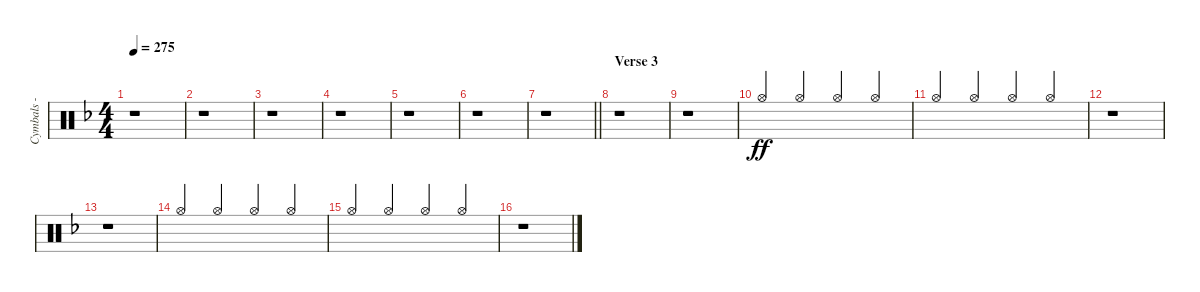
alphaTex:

\track ("Cymbals - hi-hat" "Cymbals - ") {instrument percussion}
\staff {score}
\articulation defaults
\ts (4 4)
\tempo 275
\clef neutral
\ks dminor
r.1{dy ff} |
r.1 |
r.1 |
r.1 |
r.1 |
r.1 |
\barLineRight lightlight
r.1 |
\section ("" "Verse 3")
r.1 |
r.1 |
"Hi-Hat (open)".4{beam Up} "Hi-Hat (open)".4{beam Up} "Hi-Hat (open)".4{beam Up} "Hi-Hat (open)".4{beam Up} |
"Hi-Hat (open)".4{beam Up} "Hi-Hat (open)".4{beam Up} "Hi-Hat (open)".4{beam Up} "Hi-Hat (open)".4{beam Up} |
r.1 |
r.1 |
"Hi-Hat (open)".4{beam Up} "Hi-Hat (open)".4{beam Up} "Hi-Hat (open)".4{beam Up} "Hi-Hat (open)".4{beam Up} |
"Hi-Hat (open)".4{beam Up} "Hi-Hat (open)".4{beam Up} "Hi-Hat (open)".4{beam Up} "Hi-Hat (open)".4{beam Up} |
r.1
